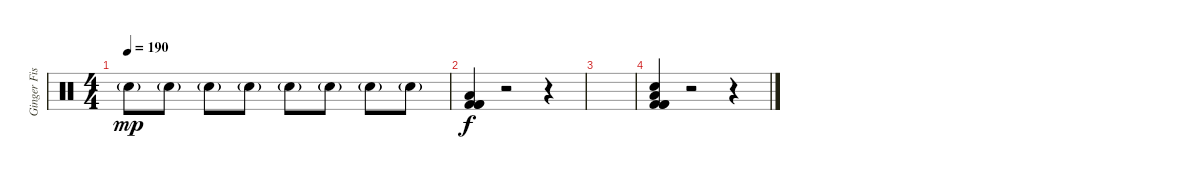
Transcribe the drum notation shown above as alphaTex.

\track ("Ginger Fish" "Ginger Fis") {instrument percussion}
\staff {score}
\articulation defaults
\ts (4 4)
\tempo 190
\clef neutral
\ks c "Electric Snare (hit)"{g}.8{dy mp} "Electric Snare (hit)"{g}.8 "Electric Snare (hit)"{g}.8 "Electric Snare (hit)"{g}.8 "Electric Snare (hit)"{g}.8 "Electric Snare (hit)"{g}.8 "Electric Snare (hit)"{g}.8 "Electric Snare (hit)"{g}.8
|
("Low Tom (hit)" "Kick (hit) 2" "Kick (hit) 2" "Kick (hit) 2").4{dy f} r.2 r.4 |
|
("Electric Snare (hit)" "Low Tom (hit)" "Kick (hit) 2" "Kick (hit) 2" "Kick (hit) 2").4 r.2 r.4
